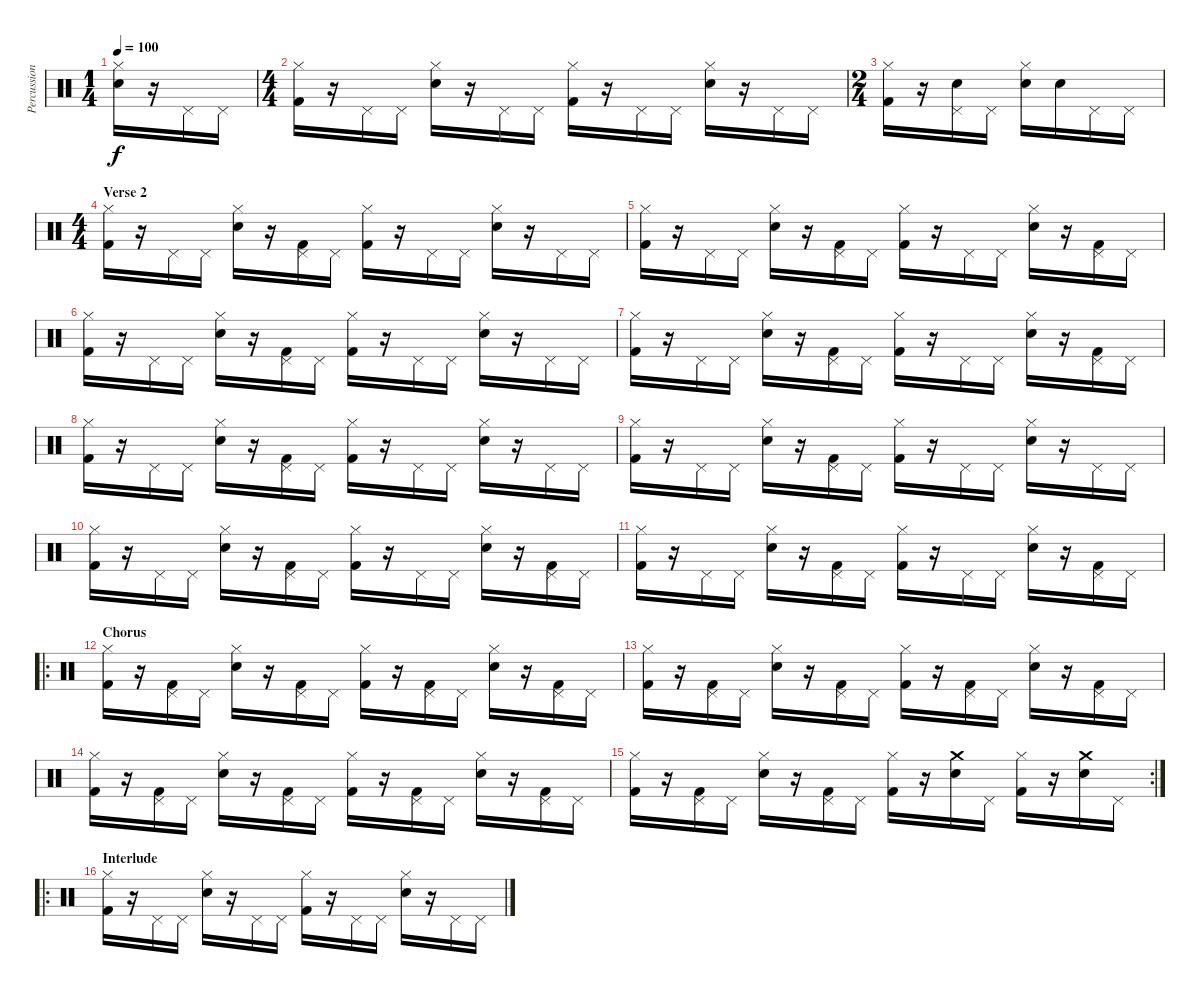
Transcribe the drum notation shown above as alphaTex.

\track ("Percussion" "Percussion") {instrument percussion}
\staff {score}
\articulation defaults
\ts (1 4)
\tempo 100
\clef neutral
\ks c
("Hi-Hat (closed)" "Snare (hit) 2").16{dy f} r.16 "Pedal Hi-Hat (hit)".16 "Pedal Hi-Hat (hit)".16 |
\ts (4 4)
("Hi-Hat (closed)" "Kick (hit) 2").16 r.16 "Pedal Hi-Hat (hit)".16 "Pedal Hi-Hat (hit)".16 ("Hi-Hat (closed)" "Snare (hit) 2").16 r.16 "Pedal Hi-Hat (hit)".16 "Pedal Hi-Hat (hit)".16 ("Hi-Hat (closed)" "Kick (hit) 2").16 r.16 "Pedal Hi-Hat (hit)".16 "Pedal Hi-Hat (hit)".16 ("Hi-Hat (closed)" "Snare (hit) 2").16 r.16 "Pedal Hi-Hat (hit)".16 "Pedal Hi-Hat (hit)".16 |
\ts (2 4)
("Hi-Hat (closed)" "Kick (hit) 2").16 r.16 ("Pedal Hi-Hat (hit)" "Snare (hit) 2").16 "Pedal Hi-Hat (hit)".16 ("Hi-Hat (closed)" "Snare (hit) 2").16 "Snare (hit) 2".16 "Pedal Hi-Hat (hit)".16 "Pedal Hi-Hat (hit)".16 |
\ts (4 4)
\section ("" "Verse 2")
("Hi-Hat (closed)" "Kick (hit) 2").16 r.16 "Pedal Hi-Hat (hit)".16 "Pedal Hi-Hat (hit)".16 ("Hi-Hat (closed)" "Snare (hit) 2").16 r.16 ("Pedal Hi-Hat (hit)" "Kick (hit) 2").16 "Pedal Hi-Hat (hit)".16 ("Hi-Hat (closed)" "Kick (hit) 2").16 r.16 "Pedal Hi-Hat (hit)".16 "Pedal Hi-Hat (hit)".16 ("Hi-Hat (closed)" "Snare (hit) 2").16 r.16 "Pedal Hi-Hat (hit)".16 "Pedal Hi-Hat (hit)".16 |
("Hi-Hat (closed)" "Kick (hit) 2").16 r.16 "Pedal Hi-Hat (hit)".16 "Pedal Hi-Hat (hit)".16 ("Hi-Hat (closed)" "Snare (hit) 2").16 r.16 ("Pedal Hi-Hat (hit)" "Kick (hit) 2").16 "Pedal Hi-Hat (hit)".16 ("Hi-Hat (closed)" "Kick (hit) 2").16 r.16 "Pedal Hi-Hat (hit)".16 "Pedal Hi-Hat (hit)".16 ("Hi-Hat (closed)" "Snare (hit) 2").16 r.16 ("Pedal Hi-Hat (hit)" "Kick (hit) 2").16 "Pedal Hi-Hat (hit)".16 |
("Hi-Hat (closed)" "Kick (hit) 2").16 r.16 "Pedal Hi-Hat (hit)".16 "Pedal Hi-Hat (hit)".16 ("Hi-Hat (closed)" "Snare (hit) 2").16 r.16 ("Pedal Hi-Hat (hit)" "Kick (hit) 2").16 "Pedal Hi-Hat (hit)".16 ("Hi-Hat (closed)" "Kick (hit) 2").16 r.16 "Pedal Hi-Hat (hit)".16 "Pedal Hi-Hat (hit)".16 ("Hi-Hat (closed)" "Snare (hit) 2").16 r.16 "Pedal Hi-Hat (hit)".16 "Pedal Hi-Hat (hit)".16 |
("Hi-Hat (closed)" "Kick (hit) 2").16 r.16 "Pedal Hi-Hat (hit)".16 "Pedal Hi-Hat (hit)".16 ("Hi-Hat (closed)" "Snare (hit) 2").16 r.16 ("Pedal Hi-Hat (hit)" "Kick (hit) 2").16 "Pedal Hi-Hat (hit)".16 ("Hi-Hat (closed)" "Kick (hit) 2").16 r.16 "Pedal Hi-Hat (hit)".16 "Pedal Hi-Hat (hit)".16 ("Hi-Hat (closed)" "Snare (hit) 2").16 r.16 ("Pedal Hi-Hat (hit)" "Kick (hit) 2").16 "Pedal Hi-Hat (hit)".16 |
("Hi-Hat (closed)" "Kick (hit) 2").16 r.16 "Pedal Hi-Hat (hit)".16 "Pedal Hi-Hat (hit)".16 ("Hi-Hat (closed)" "Snare (hit) 2").16 r.16 ("Pedal Hi-Hat (hit)" "Kick (hit) 2").16 "Pedal Hi-Hat (hit)".16 ("Hi-Hat (closed)" "Kick (hit) 2").16 r.16 "Pedal Hi-Hat (hit)".16 "Pedal Hi-Hat (hit)".16 ("Hi-Hat (closed)" "Snare (hit) 2").16 r.16 "Pedal Hi-Hat (hit)".16 "Pedal Hi-Hat (hit)".16 |
("Hi-Hat (closed)" "Kick (hit) 2").16 r.16 "Pedal Hi-Hat (hit)".16 "Pedal Hi-Hat (hit)".16 ("Hi-Hat (closed)" "Snare (hit) 2").16 r.16 ("Pedal Hi-Hat (hit)" "Kick (hit) 2").16 "Pedal Hi-Hat (hit)".16 ("Hi-Hat (closed)" "Kick (hit) 2").16 r.16 "Pedal Hi-Hat (hit)".16 "Pedal Hi-Hat (hit)".16 ("Hi-Hat (closed)" "Snare (hit) 2").16 r.16 "Pedal Hi-Hat (hit)".16 "Pedal Hi-Hat (hit)".16 |
("Hi-Hat (closed)" "Kick (hit) 2").16 r.16 "Pedal Hi-Hat (hit)".16 "Pedal Hi-Hat (hit)".16 ("Hi-Hat (closed)" "Snare (hit) 2").16 r.16 ("Pedal Hi-Hat (hit)" "Kick (hit) 2").16 "Pedal Hi-Hat (hit)".16 ("Hi-Hat (closed)" "Kick (hit) 2").16 r.16 "Pedal Hi-Hat (hit)".16 "Pedal Hi-Hat (hit)".16 ("Hi-Hat (closed)" "Snare (hit) 2").16 r.16 ("Pedal Hi-Hat (hit)" "Kick (hit) 2").16 "Pedal Hi-Hat (hit)".16 |
("Hi-Hat (closed)" "Kick (hit) 2").16 r.16 "Pedal Hi-Hat (hit)".16 "Pedal Hi-Hat (hit)".16 ("Hi-Hat (closed)" "Snare (hit) 2").16 r.16 ("Pedal Hi-Hat (hit)" "Kick (hit) 2").16 "Pedal Hi-Hat (hit)".16 ("Hi-Hat (closed)" "Kick (hit) 2").16 r.16 "Pedal Hi-Hat (hit)".16 "Pedal Hi-Hat (hit)".16 ("Hi-Hat (closed)" "Snare (hit) 2").16 r.16 ("Pedal Hi-Hat (hit)" "Kick (hit) 2").16 "Pedal Hi-Hat (hit)".16 |
\ro
\section ("" "Chorus")
("Hi-Hat (closed)" "Kick (hit) 2").16 r.16 ("Pedal Hi-Hat (hit)" "Kick (hit) 2").16 "Pedal Hi-Hat (hit)".16 ("Hi-Hat (closed)" "Snare (hit) 2").16 r.16 ("Pedal Hi-Hat (hit)" "Kick (hit) 2").16 "Pedal Hi-Hat (hit)".16 ("Hi-Hat (closed)" "Kick (hit) 2").16 r.16 ("Pedal Hi-Hat (hit)" "Kick (hit) 2").16 "Pedal Hi-Hat (hit)".16 ("Hi-Hat (closed)" "Snare (hit) 2").16 r.16 ("Pedal Hi-Hat (hit)" "Kick (hit) 2").16 "Pedal Hi-Hat (hit)".16 |
("Hi-Hat (closed)" "Kick (hit) 2").16 r.16 ("Pedal Hi-Hat (hit)" "Kick (hit) 2").16 "Pedal Hi-Hat (hit)".16 ("Hi-Hat (closed)" "Snare (hit) 2").16 r.16 ("Pedal Hi-Hat (hit)" "Kick (hit) 2").16 "Pedal Hi-Hat (hit)".16 ("Hi-Hat (closed)" "Kick (hit) 2").16 r.16 ("Pedal Hi-Hat (hit)" "Kick (hit) 2").16 "Pedal Hi-Hat (hit)".16 ("Hi-Hat (closed)" "Snare (hit) 2").16 r.16 ("Pedal Hi-Hat (hit)" "Kick (hit) 2").16 "Pedal Hi-Hat (hit)".16 |
("Hi-Hat (closed)" "Kick (hit) 2").16 r.16 ("Pedal Hi-Hat (hit)" "Kick (hit) 2").16 "Pedal Hi-Hat (hit)".16 ("Hi-Hat (closed)" "Snare (hit) 2").16 r.16 ("Pedal Hi-Hat (hit)" "Kick (hit) 2").16 "Pedal Hi-Hat (hit)".16 ("Hi-Hat (closed)" "Kick (hit) 2").16 r.16 ("Pedal Hi-Hat (hit)" "Kick (hit) 2").16 "Pedal Hi-Hat (hit)".16 ("Hi-Hat (closed)" "Snare (hit) 2").16 r.16 ("Pedal Hi-Hat (hit)" "Kick (hit) 2").16 "Pedal Hi-Hat (hit)".16 |
\rc 2
("Hi-Hat (closed)" "Kick (hit) 2").16 r.16 ("Pedal Hi-Hat (hit)" "Kick (hit) 2").16 "Pedal Hi-Hat (hit)".16 ("Hi-Hat (closed)" "Snare (hit) 2").16 r.16 ("Pedal Hi-Hat (hit)" "Kick (hit) 2").16 "Pedal Hi-Hat (hit)".16 ("Hi-Hat (closed)" "Kick (hit) 2").16 r.16 ("Crash medium (hit)" "Snare (hit) 2").16 "Pedal Hi-Hat (hit)".16 ("Hi-Hat (closed)" "Kick (hit) 2").16 r.16 ("Crash medium (hit)" "Snare (hit) 2").16 "Pedal Hi-Hat (hit)".16 |
\ro
\section ("" "Interlude")
("Hi-Hat (closed)" "Kick (hit) 2").16 r.16 "Pedal Hi-Hat (hit)".16 "Pedal Hi-Hat (hit)".16 ("Hi-Hat (closed)" "Snare (hit) 2").16 r.16 "Pedal Hi-Hat (hit)".16 "Pedal Hi-Hat (hit)".16 ("Hi-Hat (closed)" "Kick (hit) 2").16 r.16 "Pedal Hi-Hat (hit)".16 "Pedal Hi-Hat (hit)".16 ("Hi-Hat (closed)" "Snare (hit) 2").16 r.16 "Pedal Hi-Hat (hit)".16 "Pedal Hi-Hat (hit)".16
